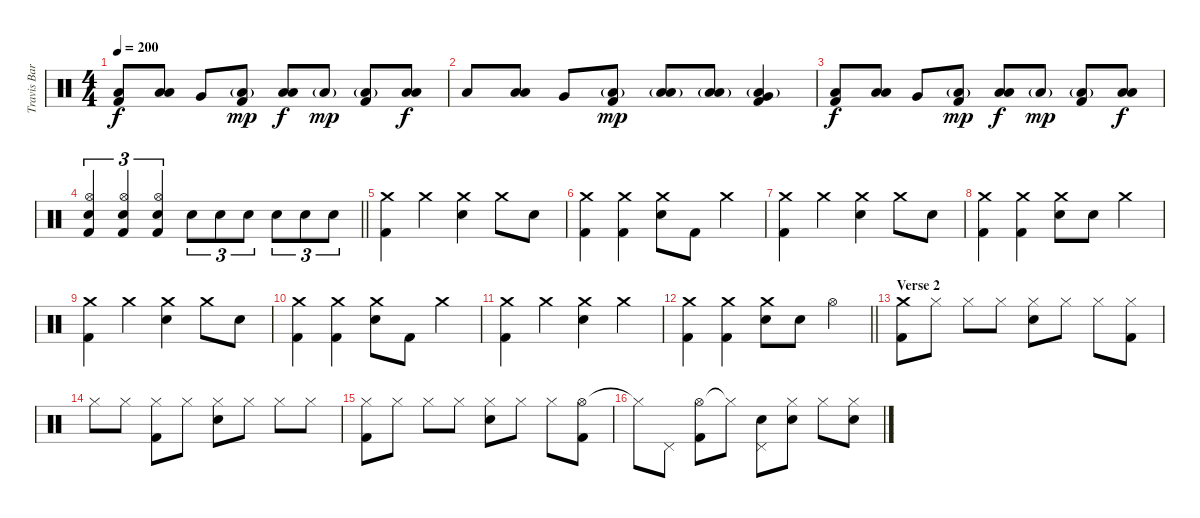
\track ("Travis Barker - Drums" "Travis Bar") {instrument percussion}
\staff {score}
\articulation defaults
\ts (4 4)
\tempo 200
\clef neutral
\ks c
("Low Floor Tom (hit)" "Kick (hit) 2").8{dy f} ("Low Tom (hit)" "Low Floor Tom (hit)").8 "Very Low Tom (hit)".8 ("Low Floor Tom (hit)"{g} "Kick (hit) 2").8{dy mp} ("Low Tom (hit)" "Low Floor Tom (hit)").8{dy f} "Low Floor Tom (hit)"{g}.8{dy mp} ("Low Floor Tom (hit)"{g} "Kick (hit) 2").8 ("Low Tom (hit)" "Low Floor Tom (hit)").8{dy f} |
"Low Floor Tom (hit)".8 ("Low Tom (hit)" "Low Floor Tom (hit)").8 "Very Low Tom (hit)".8 ("Low Floor Tom (hit)"{g} "Kick (hit) 2").8{dy mp} ("Low Tom (hit)"{g} "Low Floor Tom (hit)").8 ("Low Tom (hit)" "Low Floor Tom (hit)"{g}).8 ("Very Low Tom (hit)" "Low Floor Tom (hit)"{g} "Kick (hit) 2").4 |
("Low Floor Tom (hit)" "Kick (hit) 2").8{dy f} ("Low Tom (hit)" "Low Floor Tom (hit)").8 "Very Low Tom (hit)".8 ("Low Floor Tom (hit)"{g} "Kick (hit) 2").8{dy mp} ("Low Tom (hit)" "Low Floor Tom (hit)").8{dy f} "Low Floor Tom (hit)"{g}.8{dy mp} ("Low Floor Tom (hit)"{g} "Kick (hit) 2").8 ("Low Tom (hit)" "Low Floor Tom (hit)").8{dy f} |
\barLineRight lightlight
("Hi-Hat (open)" "Electric Snare (hit)" "Kick (hit) 2").4{tu (3 2)} ("Hi-Hat (open)" "Electric Snare (hit)" "Kick (hit) 2").4{tu (3 2)} ("Hi-Hat (open)" "Electric Snare (hit)" "Kick (hit) 2").4{tu (3 2)} "Electric Snare (hit)".8{tu (3 2)} "Electric Snare (hit)".8{tu (3 2)} "Electric Snare (hit)".8{tu (3 2)} "Electric Snare (hit)".8{tu (3 2)} "Electric Snare (hit)".8{tu (3 2)} "Electric Snare (hit)".8{tu (3 2)} |
("Crash medium (hit)" "Kick (hit) 2").4 "Crash medium (hit)".4 ("Crash medium (hit)" "Electric Snare (hit)").4 "Crash medium (hit)".8 "Electric Snare (hit)".8 |
("Crash medium (hit)" "Kick (hit) 2").4 ("Crash medium (hit)" "Kick (hit) 2").4 ("Crash medium (hit)" "Electric Snare (hit)").8 "Kick (hit) 2".8 "Crash medium (hit)".4 |
("Crash medium (hit)" "Kick (hit) 2").4 "Crash medium (hit)".4 ("Crash medium (hit)" "Electric Snare (hit)").4 "Crash medium (hit)".8 "Electric Snare (hit)".8 |
("Crash medium (hit)" "Kick (hit) 2").4 ("Crash medium (hit)" "Kick (hit) 2").4 ("Crash medium (hit)" "Electric Snare (hit)").8 "Electric Snare (hit)".8 "Crash medium (hit)".4 |
("Crash medium (hit)" "Kick (hit) 2").4 "Crash medium (hit)".4 ("Crash medium (hit)" "Electric Snare (hit)").4 "Crash medium (hit)".8 "Electric Snare (hit)".8 |
("Crash medium (hit)" "Kick (hit) 2").4 ("Crash medium (hit)" "Kick (hit) 2").4 ("Crash medium (hit)" "Electric Snare (hit)").8 "Kick (hit) 2".8 "Crash medium (hit)".4 |
("Crash medium (hit)" "Kick (hit) 2").4 "Crash medium (hit)".4 ("Crash medium (hit)" "Electric Snare (hit)").4 "Crash medium (hit)".4 |
\barLineRight lightlight
("Crash medium (hit)" "Kick (hit) 2").4 ("Crash medium (hit)" "Kick (hit) 2").4 ("Crash medium (hit)" "Electric Snare (hit)").8 "Electric Snare (hit)".8 "Hi-Hat (open)".4 |
\section ("" "Verse 2")
("Crash medium (hit)" "Kick (hit) 2").8 "Hi-Hat (closed)".8 "Hi-Hat (closed)".8 "Hi-Hat (closed)".8 ("Hi-Hat (closed)" "Electric Snare (hit)").8 "Hi-Hat (closed)".8 "Hi-Hat (closed)".8 ("Hi-Hat (closed)" "Kick (hit) 2").8 |
"Hi-Hat (closed)".8 "Hi-Hat (closed)".8 ("Hi-Hat (closed)" "Kick (hit) 2").8 "Hi-Hat (closed)".8 ("Hi-Hat (closed)" "Electric Snare (hit)").8 "Hi-Hat (closed)".8 "Hi-Hat (closed)".8 "Hi-Hat (closed)".8 |
("Hi-Hat (closed)" "Kick (hit) 2").8 "Hi-Hat (closed)".8 "Hi-Hat (closed)".8 "Hi-Hat (closed)".8 ("Hi-Hat (closed)" "Electric Snare (hit)").8 "Hi-Hat (closed)".8 "Hi-Hat (closed)".8 ("Hi-Hat (open)" "Kick (hit) 2").8 |
"Hi-Hat (closed)"{t}.8 "Pedal Hi-Hat (hit)".8 ("Hi-Hat (open)" "Kick (hit) 2").8 "Hi-Hat (closed)"{t}.8 ("Pedal Hi-Hat (hit)" "Electric Snare (hit)").8 ("Hi-Hat (closed)" "Electric Snare (hit)").8 "Hi-Hat (closed)".8 ("Hi-Hat (closed)" "Electric Snare (hit)").8
